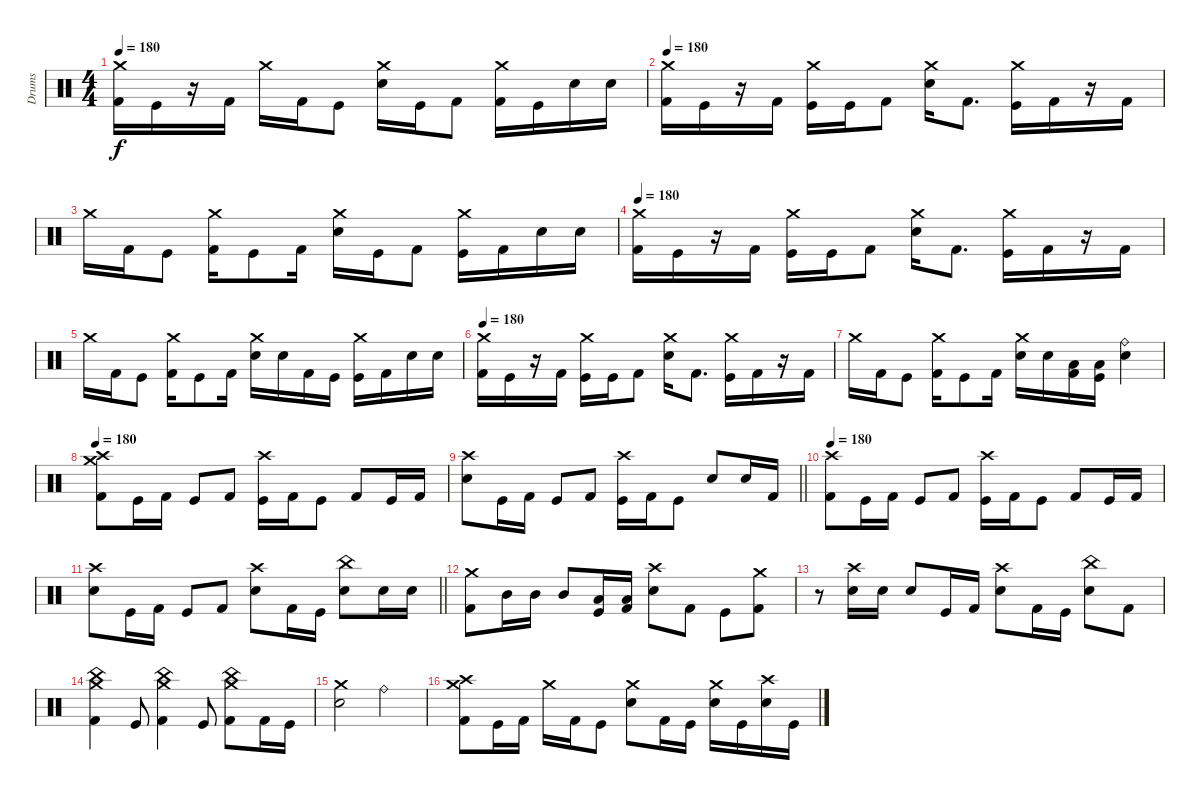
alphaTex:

\track ("Drums" "Drums") {instrument percussion}
\staff {score}
\articulation defaults
\ts (4 4)
\tempo 180
\clef neutral
\ks c
("Crash medium (hit)" "Kick (hit) 2").16{dy f} "Kick (hit)".16 r.16 "Kick (hit) 2".16 "Crash medium (hit)".16 "Kick (hit) 2".16 "Kick (hit)".8 ("Crash medium (hit)" "Electric Snare (hit)").16 "Kick (hit)".16 "Kick (hit) 2".8 ("Crash medium (hit)" "Kick (hit) 2").16 "Kick (hit)".16 "Electric Snare (hit)".16 "Electric Snare (hit)".16 |
\tempo 180
("Crash medium (hit)" "Kick (hit) 2").16 "Kick (hit)".16 r.16 "Kick (hit) 2".16 ("Crash medium (hit)" "Kick (hit)").16 "Kick (hit)".16 "Kick (hit) 2".8 ("Crash medium (hit)" "Electric Snare (hit)").16 "Kick (hit) 2".8{d} ("Crash medium (hit)" "Kick (hit)").16 "Kick (hit) 2".16 r.16 "Kick (hit) 2".16 |
"Crash medium (hit)".16 "Kick (hit) 2".16 "Kick (hit)".8 ("Crash medium (hit)" "Kick (hit) 2").16 "Kick (hit)".8 "Kick (hit) 2".16 ("Crash medium (hit)" "Electric Snare (hit)").16 "Kick (hit)".16 "Kick (hit) 2".8 ("Crash medium (hit)" "Kick (hit)").16 "Kick (hit) 2".16 "Electric Snare (hit)".16 "Electric Snare (hit)".16 |
\tempo 180
("Crash medium (hit)" "Kick (hit) 2").16 "Kick (hit)".16 r.16 "Kick (hit) 2".16 ("Crash medium (hit)" "Kick (hit)").16 "Kick (hit)".16 "Kick (hit) 2".8 ("Crash medium (hit)" "Electric Snare (hit)").16 "Kick (hit) 2".8{d} ("Crash medium (hit)" "Kick (hit)").16 "Kick (hit) 2".16 r.16 "Kick (hit) 2".16 |
"Crash medium (hit)".16 "Kick (hit) 2".16 "Kick (hit)".8 ("Crash medium (hit)" "Kick (hit) 2").16 "Kick (hit)".8 "Kick (hit) 2".16 ("Crash medium (hit)" "Electric Snare (hit)").16 "Electric Snare (hit)".16 "Kick (hit) 2".16 "Kick (hit)".16 ("Crash medium (hit)" "Kick (hit)").16 "Kick (hit) 2".16 "Electric Snare (hit)".16 "Electric Snare (hit)".16 |
\tempo 180
("Crash medium (hit)" "Kick (hit) 2").16 "Kick (hit)".16 r.16 "Kick (hit) 2".16 ("Crash medium (hit)" "Kick (hit)").16 "Kick (hit)".16 "Kick (hit) 2".8 ("Crash medium (hit)" "Electric Snare (hit)").16 "Kick (hit) 2".8{d} ("Crash medium (hit)" "Kick (hit)").16 "Kick (hit) 2".16 r.16 "Kick (hit) 2".16 |
"Crash medium (hit)".16 "Kick (hit) 2".16 "Kick (hit)".8 ("Crash medium (hit)" "Kick (hit) 2").16 "Kick (hit)".8 "Kick (hit) 2".16 ("Crash medium (hit)" "Electric Snare (hit)").16 "Electric Snare (hit)".16 ("Low Tom (hit)" "Kick (hit) 2").16 ("Low Tom (hit)" "Kick (hit)").16 ("Ride (bell)" "Electric Snare (hit)").4 |
\tempo 180
("Crash medium (hit)" "Crash high (hit)" "Kick (hit) 2").8 "Kick (hit)".16 "Kick (hit) 2".16 "Kick (hit)".8 "Kick (hit) 2".8 ("Crash high (hit)" "Kick (hit)").16 "Kick (hit) 2".16 "Kick (hit)".8 "Kick (hit) 2".8 "Kick (hit)".16 "Kick (hit) 2".16 |
\barLineRight lightlight
("Crash high (hit)" "Electric Snare (hit)").8 "Kick (hit)".16 "Kick (hit) 2".16 "Kick (hit)".8 "Kick (hit) 2".8 ("Crash high (hit)" "Kick (hit)").16 "Kick (hit) 2".16 "Kick (hit)".8 "Electric Snare (hit)".8 "Electric Snare (hit)".16 "Kick (hit) 2".16 |
\tempo 180
("Crash high (hit)" "Kick (hit) 2").8 "Kick (hit)".16 "Kick (hit) 2".16 "Kick (hit)".8 "Kick (hit) 2".8 ("Crash high (hit)" "Kick (hit)").16 "Kick (hit) 2".16 "Kick (hit)".8 "Kick (hit) 2".8 "Kick (hit)".16 "Kick (hit) 2".16 |
\barLineRight lightlight
("Crash high (hit)" "Electric Snare (hit)").8 "Kick (hit)".16 "Kick (hit) 2".16 "Kick (hit)".8 "Kick (hit) 2".8 ("Crash high (hit)" "Electric Snare (hit)").8 "Kick (hit) 2".16 "Kick (hit)".16 ("China (hit)" "Electric Snare (hit)").8 "Electric Snare (hit)".16 "Electric Snare (hit)".16 |
("Crash medium (hit)" "Kick (hit) 2").8 "Mid Tom (hit)".16 "Mid Tom (hit)".16 "Mid Tom (hit)".8 ("Low Tom (hit)" "Kick (hit)").16 ("Low Tom (hit)" "Kick (hit) 2").16 ("Crash high (hit)" "Electric Snare (hit)").8 "Kick (hit) 2".8 "Kick (hit)".8 ("Crash medium (hit)" "Kick (hit) 2").8 |
r.8 ("Crash high (hit)" "Electric Snare (hit)").16 "Electric Snare (hit)".16 "Electric Snare (hit)".8 "Kick (hit)".16 "Kick (hit) 2".16 ("Crash high (hit)" "Electric Snare (hit)").8 "Kick (hit) 2".16 "Kick (hit)".16 ("China (hit)" "Electric Snare (hit)").8 "Kick (hit) 2".8 |
("Crash medium (hit)" "China (hit)" "Kick (hit) 2").4 "Kick (hit)".8 ("Crash medium (hit)" "China (hit)" "Kick (hit) 2").4 "Kick (hit)".8 ("Crash medium (hit)" "China (hit)" "Kick (hit) 2").8 "Kick (hit) 2".16 "Kick (hit)".16 |
("Crash medium (hit)" "Electric Snare (hit)").2 "Ride (bell)".2 |
("Crash medium (hit)" "Crash high (hit)" "Kick (hit) 2").8 "Kick (hit)".16 "Kick (hit) 2".16 "Crash medium (hit)".16 "Kick (hit) 2".16 "Kick (hit)".8 ("Crash medium (hit)" "Electric Snare (hit)").8 "Kick (hit) 2".16 "Kick (hit)".16 ("Crash medium (hit)" "Electric Snare (hit)").16 "Kick (hit)".16 ("Crash high (hit)" "Electric Snare (hit)").16 "Kick (hit)".16
